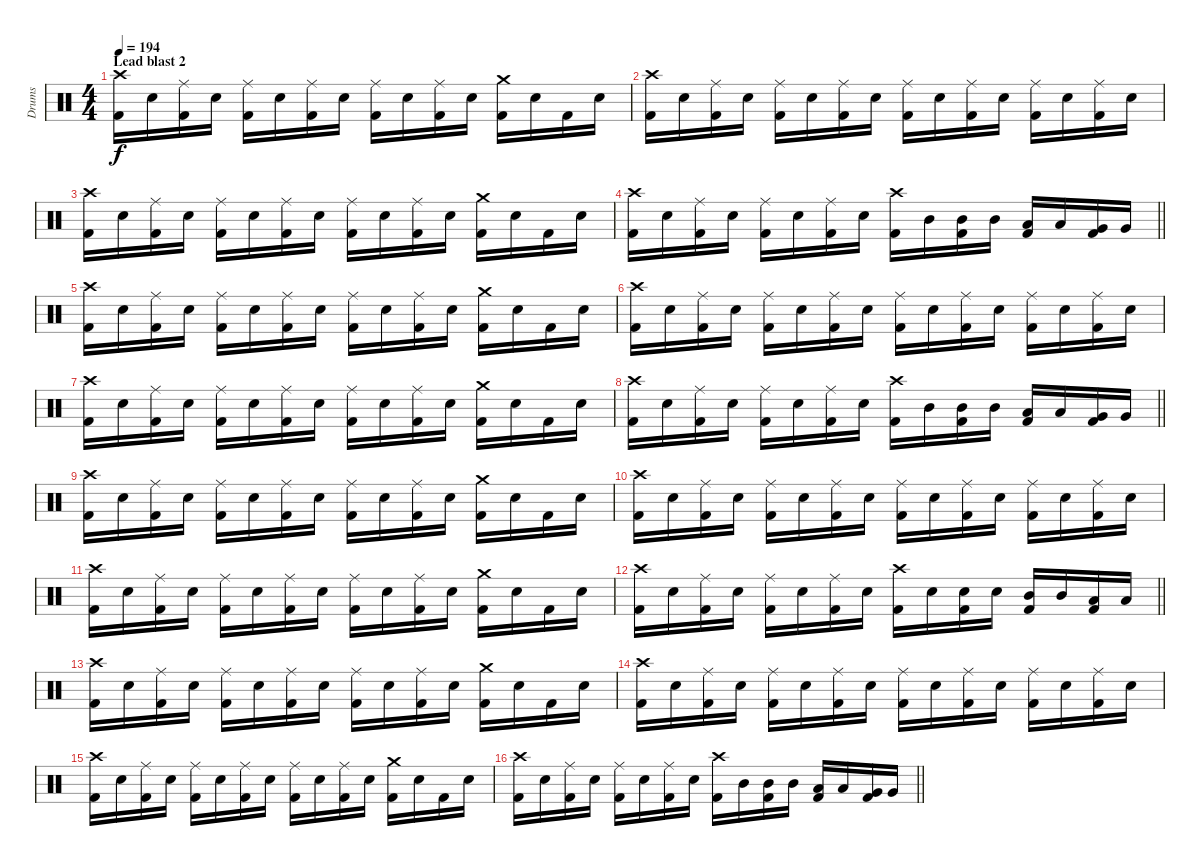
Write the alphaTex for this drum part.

\track ("Drums" "Drums") {instrument percussion}
\staff {score}
\articulation defaults
\ts (4 4)
\section ("" "Lead blast 2")
\tempo 194
\clef neutral
\ks c
("Crash high (hit)" "Kick (hit) 2").16{dy f} "Electric Snare (hit)".16 ("Ride (middle)" "Kick (hit) 2").16 "Electric Snare (hit)".16 ("Ride (middle)" "Kick (hit) 2").16 "Electric Snare (hit)".16 ("Ride (middle)" "Kick (hit) 2").16 "Electric Snare (hit)".16 ("Ride (middle)" "Kick (hit) 2").16 "Electric Snare (hit)".16 ("Ride (middle)" "Kick (hit) 2").16 "Electric Snare (hit)".16 ("Crash medium (hit)" "Kick (hit) 2").16 "Electric Snare (hit)".16 "Kick (hit) 2".16 "Electric Snare (hit)".16 |
("Crash high (hit)" "Kick (hit) 2").16 "Electric Snare (hit)".16 ("Ride (middle)" "Kick (hit) 2").16 "Electric Snare (hit)".16 ("Ride (middle)" "Kick (hit) 2").16 "Electric Snare (hit)".16 ("Ride (middle)" "Kick (hit) 2").16 "Electric Snare (hit)".16 ("Ride (middle)" "Kick (hit) 2").16 "Electric Snare (hit)".16 ("Ride (middle)" "Kick (hit) 2").16 "Electric Snare (hit)".16 ("Ride (middle)" "Kick (hit) 2").16 "Electric Snare (hit)".16 ("Ride (middle)" "Kick (hit) 2").16 "Electric Snare (hit)".16 |
("Crash high (hit)" "Kick (hit) 2").16 "Electric Snare (hit)".16 ("Ride (middle)" "Kick (hit) 2").16 "Electric Snare (hit)".16 ("Ride (middle)" "Kick (hit) 2").16 "Electric Snare (hit)".16 ("Ride (middle)" "Kick (hit) 2").16 "Electric Snare (hit)".16 ("Ride (middle)" "Kick (hit) 2").16 "Electric Snare (hit)".16 ("Ride (middle)" "Kick (hit) 2").16 "Electric Snare (hit)".16 ("Crash medium (hit)" "Kick (hit) 2").16 "Electric Snare (hit)".16 "Kick (hit) 2".16 "Electric Snare (hit)".16 |
\barLineRight lightlight
("Crash high (hit)" "Kick (hit) 2").16 "Electric Snare (hit)".16 ("Ride (middle)" "Kick (hit) 2").16 "Electric Snare (hit)".16 ("Ride (middle)" "Kick (hit) 2").16 "Electric Snare (hit)".16 ("Ride (middle)" "Kick (hit) 2").16 "Electric Snare (hit)".16 ("Crash high (hit)" "Kick (hit) 2").16 "Mid Tom (hit)".16 ("Mid Tom (hit)" "Kick (hit) 2").16 "Mid Tom (hit)".16 ("Low Tom (hit)" "Kick (hit) 2").16 "Low Tom (hit)".16 ("Very Low Tom (hit)" "Kick (hit) 2").16 "Very Low Tom (hit)".16 |
("Crash high (hit)" "Kick (hit) 2").16 "Electric Snare (hit)".16 ("Ride (middle)" "Kick (hit) 2").16 "Electric Snare (hit)".16 ("Ride (middle)" "Kick (hit) 2").16 "Electric Snare (hit)".16 ("Ride (middle)" "Kick (hit) 2").16 "Electric Snare (hit)".16 ("Ride (middle)" "Kick (hit) 2").16 "Electric Snare (hit)".16 ("Ride (middle)" "Kick (hit) 2").16 "Electric Snare (hit)".16 ("Crash medium (hit)" "Kick (hit) 2").16 "Electric Snare (hit)".16 "Kick (hit) 2".16 "Electric Snare (hit)".16 |
("Crash high (hit)" "Kick (hit) 2").16 "Electric Snare (hit)".16 ("Ride (middle)" "Kick (hit) 2").16 "Electric Snare (hit)".16 ("Ride (middle)" "Kick (hit) 2").16 "Electric Snare (hit)".16 ("Ride (middle)" "Kick (hit) 2").16 "Electric Snare (hit)".16 ("Ride (middle)" "Kick (hit) 2").16 "Electric Snare (hit)".16 ("Ride (middle)" "Kick (hit) 2").16 "Electric Snare (hit)".16 ("Ride (middle)" "Kick (hit) 2").16 "Electric Snare (hit)".16 ("Ride (middle)" "Kick (hit) 2").16 "Electric Snare (hit)".16 |
("Crash high (hit)" "Kick (hit) 2").16 "Electric Snare (hit)".16 ("Ride (middle)" "Kick (hit) 2").16 "Electric Snare (hit)".16 ("Ride (middle)" "Kick (hit) 2").16 "Electric Snare (hit)".16 ("Ride (middle)" "Kick (hit) 2").16 "Electric Snare (hit)".16 ("Ride (middle)" "Kick (hit) 2").16 "Electric Snare (hit)".16 ("Ride (middle)" "Kick (hit) 2").16 "Electric Snare (hit)".16 ("Crash medium (hit)" "Kick (hit) 2").16 "Electric Snare (hit)".16 "Kick (hit) 2".16 "Electric Snare (hit)".16 |
\barLineRight lightlight
("Crash high (hit)" "Kick (hit) 2").16 "Electric Snare (hit)".16 ("Ride (middle)" "Kick (hit) 2").16 "Electric Snare (hit)".16 ("Ride (middle)" "Kick (hit) 2").16 "Electric Snare (hit)".16 ("Ride (middle)" "Kick (hit) 2").16 "Electric Snare (hit)".16 ("Crash high (hit)" "Kick (hit) 2").16 "Mid Tom (hit)".16 ("Mid Tom (hit)" "Kick (hit) 2").16 "Mid Tom (hit)".16 ("Low Tom (hit)" "Kick (hit) 2").16 "Low Tom (hit)".16 ("Very Low Tom (hit)" "Kick (hit) 2").16 "Very Low Tom (hit)".16 |
("Crash high (hit)" "Kick (hit) 2").16 "Electric Snare (hit)".16 ("Ride (middle)" "Kick (hit) 2").16 "Electric Snare (hit)".16 ("Ride (middle)" "Kick (hit) 2").16 "Electric Snare (hit)".16 ("Ride (middle)" "Kick (hit) 2").16 "Electric Snare (hit)".16 ("Ride (middle)" "Kick (hit) 2").16 "Electric Snare (hit)".16 ("Ride (middle)" "Kick (hit) 2").16 "Electric Snare (hit)".16 ("Crash medium (hit)" "Kick (hit) 2").16 "Electric Snare (hit)".16 "Kick (hit) 2".16 "Electric Snare (hit)".16 |
("Crash high (hit)" "Kick (hit) 2").16 "Electric Snare (hit)".16 ("Ride (middle)" "Kick (hit) 2").16 "Electric Snare (hit)".16 ("Ride (middle)" "Kick (hit) 2").16 "Electric Snare (hit)".16 ("Ride (middle)" "Kick (hit) 2").16 "Electric Snare (hit)".16 ("Ride (middle)" "Kick (hit) 2").16 "Electric Snare (hit)".16 ("Ride (middle)" "Kick (hit) 2").16 "Electric Snare (hit)".16 ("Ride (middle)" "Kick (hit) 2").16 "Electric Snare (hit)".16 ("Ride (middle)" "Kick (hit) 2").16 "Electric Snare (hit)".16 |
("Crash high (hit)" "Kick (hit) 2").16 "Electric Snare (hit)".16 ("Ride (middle)" "Kick (hit) 2").16 "Electric Snare (hit)".16 ("Ride (middle)" "Kick (hit) 2").16 "Electric Snare (hit)".16 ("Ride (middle)" "Kick (hit) 2").16 "Electric Snare (hit)".16 ("Ride (middle)" "Kick (hit) 2").16 "Electric Snare (hit)".16 ("Ride (middle)" "Kick (hit) 2").16 "Electric Snare (hit)".16 ("Crash medium (hit)" "Kick (hit) 2").16 "Electric Snare (hit)".16 "Kick (hit) 2".16 "Electric Snare (hit)".16 |
\barLineRight lightlight
("Crash high (hit)" "Kick (hit) 2").16 "Electric Snare (hit)".16 ("Ride (middle)" "Kick (hit) 2").16 "Electric Snare (hit)".16 ("Ride (middle)" "Kick (hit) 2").16 "Electric Snare (hit)".16 ("Ride (middle)" "Kick (hit) 2").16 "Electric Snare (hit)".16 ("Crash high (hit)" "Kick (hit) 2").16 "Electric Snare (hit)".16 ("Electric Snare (hit)" "Kick (hit) 2").16 "Electric Snare (hit)".16 ("Mid Tom (hit)" "Kick (hit) 2").16 "Mid Tom (hit)".16 ("Low Tom (hit)" "Kick (hit) 2").16 "Low Tom (hit)".16 |
("Crash high (hit)" "Kick (hit) 2").16 "Electric Snare (hit)".16 ("Ride (middle)" "Kick (hit) 2").16 "Electric Snare (hit)".16 ("Ride (middle)" "Kick (hit) 2").16 "Electric Snare (hit)".16 ("Ride (middle)" "Kick (hit) 2").16 "Electric Snare (hit)".16 ("Ride (middle)" "Kick (hit) 2").16 "Electric Snare (hit)".16 ("Ride (middle)" "Kick (hit) 2").16 "Electric Snare (hit)".16 ("Crash medium (hit)" "Kick (hit) 2").16 "Electric Snare (hit)".16 "Kick (hit) 2".16 "Electric Snare (hit)".16 |
("Crash high (hit)" "Kick (hit) 2").16 "Electric Snare (hit)".16 ("Ride (middle)" "Kick (hit) 2").16 "Electric Snare (hit)".16 ("Ride (middle)" "Kick (hit) 2").16 "Electric Snare (hit)".16 ("Ride (middle)" "Kick (hit) 2").16 "Electric Snare (hit)".16 ("Ride (middle)" "Kick (hit) 2").16 "Electric Snare (hit)".16 ("Ride (middle)" "Kick (hit) 2").16 "Electric Snare (hit)".16 ("Ride (middle)" "Kick (hit) 2").16 "Electric Snare (hit)".16 ("Ride (middle)" "Kick (hit) 2").16 "Electric Snare (hit)".16 |
("Crash high (hit)" "Kick (hit) 2").16 "Electric Snare (hit)".16 ("Ride (middle)" "Kick (hit) 2").16 "Electric Snare (hit)".16 ("Ride (middle)" "Kick (hit) 2").16 "Electric Snare (hit)".16 ("Ride (middle)" "Kick (hit) 2").16 "Electric Snare (hit)".16 ("Ride (middle)" "Kick (hit) 2").16 "Electric Snare (hit)".16 ("Ride (middle)" "Kick (hit) 2").16 "Electric Snare (hit)".16 ("Crash medium (hit)" "Kick (hit) 2").16 "Electric Snare (hit)".16 "Kick (hit) 2".16 "Electric Snare (hit)".16 |
\barLineRight lightlight
("Crash high (hit)" "Kick (hit) 2").16 "Electric Snare (hit)".16 ("Ride (middle)" "Kick (hit) 2").16 "Electric Snare (hit)".16 ("Ride (middle)" "Kick (hit) 2").16 "Electric Snare (hit)".16 ("Ride (middle)" "Kick (hit) 2").16 "Electric Snare (hit)".16 ("Crash high (hit)" "Kick (hit) 2").16 "Mid Tom (hit)".16 ("Mid Tom (hit)" "Kick (hit) 2").16 "Mid Tom (hit)".16 ("Low Tom (hit)" "Kick (hit) 2").16 "Low Tom (hit)".16 ("Very Low Tom (hit)" "Kick (hit) 2").16 "Very Low Tom (hit)".16
